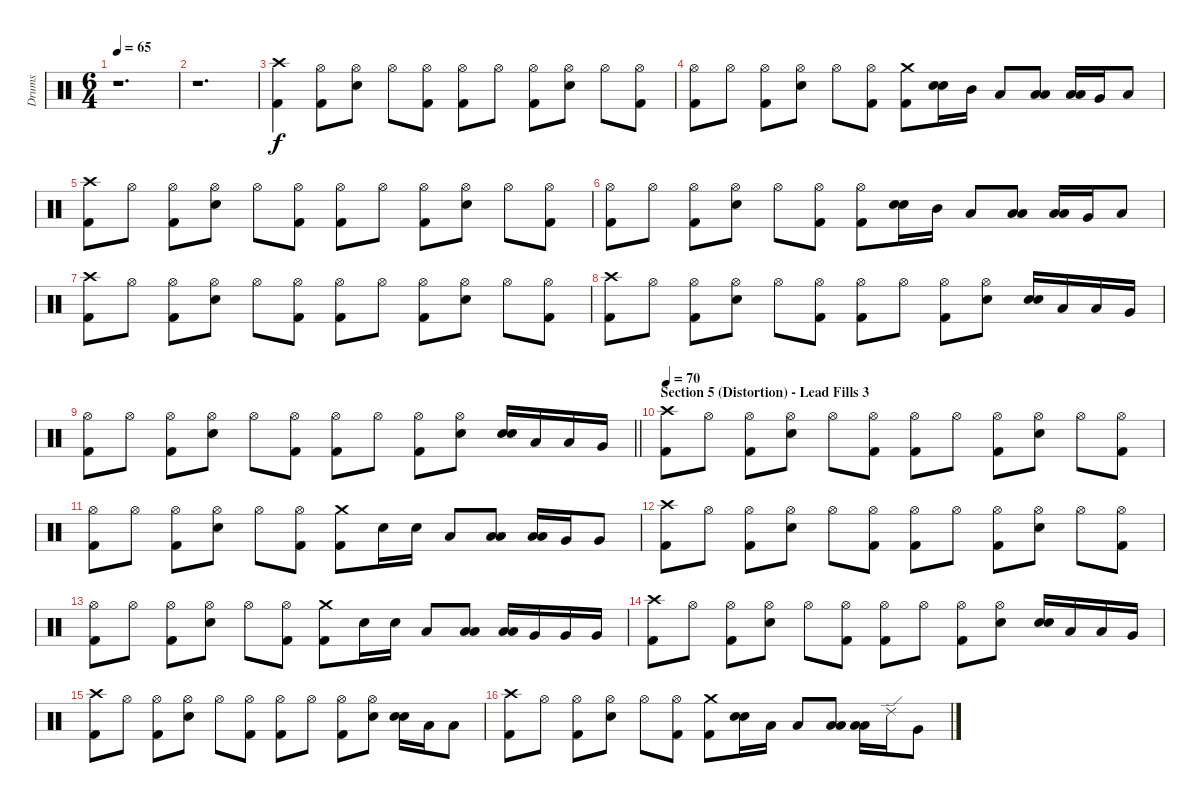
\track ("Drums" "Drums") {instrument percussion}
\staff {score}
\articulation defaults
\ts (6 4)
\tempo 65
\clef neutral
\ks c
r.1{d dy f} |
r.1{d} |
("Crash high (hit)" "Kick (hit) 2").4 ("Hi-Hat (open)" "Kick (hit) 2").8 ("Hi-Hat (open)" "Electric Snare (hit)").8 "Hi-Hat (open)".8 ("Hi-Hat (open)" "Kick (hit) 2").8 ("Hi-Hat (open)" "Kick (hit) 2").8 "Hi-Hat (open)".8 ("Hi-Hat (open)" "Kick (hit) 2").8 ("Hi-Hat (open)" "Electric Snare (hit)").8 "Hi-Hat (open)".8 ("Hi-Hat (open)" "Kick (hit) 2").8 |
("Hi-Hat (open)" "Kick (hit) 2").8 "Hi-Hat (open)".8 ("Hi-Hat (open)" "Kick (hit) 2").8 ("Hi-Hat (open)" "Electric Snare (hit)").8 "Hi-Hat (open)".8 ("Hi-Hat (open)" "Kick (hit) 2").8 ("Crash medium (hit)" "Kick (hit) 2").8 ("Electric Snare (hit)" "Electric Snare (hit)").16{bu 120} "Mid Tom (hit)".16 "Low Tom (hit)".8 ("Low Tom (hit)" "Low Tom (hit)").8{bu 120} ("Low Tom (hit)" "Low Tom (hit)").16{bu 120} "Very Low Tom (hit)".16 "Low Floor Tom (hit)".8 |
("Crash high (hit)" "Kick (hit) 2").8 "Hi-Hat (open)".8 ("Hi-Hat (open)" "Kick (hit) 2").8 ("Hi-Hat (open)" "Electric Snare (hit)").8 "Hi-Hat (open)".8 ("Hi-Hat (open)" "Kick (hit) 2").8 ("Hi-Hat (open)" "Kick (hit) 2").8 "Hi-Hat (open)".8 ("Hi-Hat (open)" "Kick (hit) 2").8 ("Hi-Hat (open)" "Electric Snare (hit)").8 "Hi-Hat (open)".8 ("Hi-Hat (open)" "Kick (hit) 2").8 |
("Hi-Hat (open)" "Kick (hit) 2").8 "Hi-Hat (open)".8 ("Hi-Hat (open)" "Kick (hit) 2").8 ("Hi-Hat (open)" "Electric Snare (hit)").8 "Hi-Hat (open)".8 ("Hi-Hat (open)" "Kick (hit) 2").8 ("Hi-Hat (open)" "Kick (hit) 2").8 ("Electric Snare (hit)" "Electric Snare (hit)").16{bu 120} "Mid Tom (hit)".16 "Low Tom (hit)".8 ("Low Tom (hit)" "Low Tom (hit)").8{bu 120} ("Low Tom (hit)" "Low Tom (hit)").16{bu 120} "Very Low Tom (hit)".16 "Low Floor Tom (hit)".8 |
("Crash high (hit)" "Kick (hit) 2").8 "Hi-Hat (open)".8 ("Hi-Hat (open)" "Kick (hit) 2").8 ("Hi-Hat (open)" "Electric Snare (hit)").8 "Hi-Hat (open)".8 ("Hi-Hat (open)" "Kick (hit) 2").8 ("Hi-Hat (open)" "Kick (hit) 2").8 "Hi-Hat (open)".8 ("Hi-Hat (open)" "Kick (hit) 2").8 ("Hi-Hat (open)" "Electric Snare (hit)").8 "Hi-Hat (open)".8 ("Hi-Hat (open)" "Kick (hit) 2").8 |
("Crash high (hit)" "Kick (hit) 2").8 "Hi-Hat (open)".8 ("Hi-Hat (open)" "Kick (hit) 2").8 ("Hi-Hat (open)" "Electric Snare (hit)").8 "Hi-Hat (open)".8 ("Hi-Hat (open)" "Kick (hit) 2").8 ("Hi-Hat (open)" "Kick (hit) 2").8 "Hi-Hat (open)".8 ("Hi-Hat (open)" "Kick (hit) 2").8 ("Hi-Hat (open)" "Electric Snare (hit)").8 ("Electric Snare (hit)" "Electric Snare (hit)").16{bu 60} "Low Tom (hit)".16 "Low Tom (hit)".16 "Very Low Tom (hit)".16 |
\barLineRight lightlight
("Hi-Hat (open)" "Kick (hit) 2").8 "Hi-Hat (open)".8 ("Hi-Hat (open)" "Kick (hit) 2").8 ("Hi-Hat (open)" "Electric Snare (hit)").8 "Hi-Hat (open)".8 ("Hi-Hat (open)" "Kick (hit) 2").8 ("Hi-Hat (open)" "Kick (hit) 2").8 "Hi-Hat (open)".8 ("Hi-Hat (open)" "Kick (hit) 2").8 ("Hi-Hat (open)" "Electric Snare (hit)").8 ("Electric Snare (hit)" "Electric Snare (hit)").16{bu 60} "Low Tom (hit)".16 "Low Tom (hit)".16 "Very Low Tom (hit)".16 |
\section ("" "Section 5 (Distortion) - Lead Fills 3")
\tempo 70
("Crash high (hit)" "Kick (hit) 2").8 "Hi-Hat (open)".8 ("Hi-Hat (open)" "Kick (hit) 2").8 ("Hi-Hat (open)" "Electric Snare (hit)").8 "Hi-Hat (open)".8 ("Hi-Hat (open)" "Kick (hit) 2").8 ("Hi-Hat (open)" "Kick (hit) 2").8 "Hi-Hat (open)".8 ("Hi-Hat (open)" "Kick (hit) 2").8 ("Hi-Hat (open)" "Electric Snare (hit)").8 "Hi-Hat (open)".8 ("Hi-Hat (open)" "Kick (hit) 2").8 |
("Hi-Hat (open)" "Kick (hit) 2").8 "Hi-Hat (open)".8 ("Hi-Hat (open)" "Kick (hit) 2").8 ("Hi-Hat (open)" "Electric Snare (hit)").8 "Hi-Hat (open)".8 ("Hi-Hat (open)" "Kick (hit) 2").8 ("Crash medium (hit)" "Kick (hit) 2").8 "Electric Snare (hit)".16 "Electric Snare (hit)".16 "Low Tom (hit)".8 ("Low Tom (hit)" "Low Tom (hit)").8{bu 60} ("Low Tom (hit)" "Low Tom (hit)").16{bu 60} "Very Low Tom (hit)".16 "Very Low Tom (hit)".8 |
("Crash high (hit)" "Kick (hit) 2").8 "Hi-Hat (open)".8 ("Hi-Hat (open)" "Kick (hit) 2").8 ("Hi-Hat (open)" "Electric Snare (hit)").8 "Hi-Hat (open)".8 ("Hi-Hat (open)" "Kick (hit) 2").8 ("Hi-Hat (open)" "Kick (hit) 2").8 "Hi-Hat (open)".8 ("Hi-Hat (open)" "Kick (hit) 2").8 ("Hi-Hat (open)" "Electric Snare (hit)").8 "Hi-Hat (open)".8 ("Hi-Hat (open)" "Kick (hit) 2").8 |
("Hi-Hat (open)" "Kick (hit) 2").8 "Hi-Hat (open)".8 ("Hi-Hat (open)" "Kick (hit) 2").8 ("Hi-Hat (open)" "Electric Snare (hit)").8 "Hi-Hat (open)".8 ("Hi-Hat (open)" "Kick (hit) 2").8 ("Crash medium (hit)" "Kick (hit) 2").8 "Electric Snare (hit)".16 "Electric Snare (hit)".16 "Low Tom (hit)".8 ("Low Tom (hit)" "Low Tom (hit)").8{bu 60} ("Low Tom (hit)" "Low Tom (hit)").16{bu 60} "Very Low Tom (hit)".16 "Very Low Tom (hit)".16 "Very Low Tom (hit)".16 |
("Crash high (hit)" "Kick (hit) 2").8 "Hi-Hat (open)".8 ("Hi-Hat (open)" "Kick (hit) 2").8 ("Hi-Hat (open)" "Electric Snare (hit)").8 "Hi-Hat (open)".8 ("Hi-Hat (open)" "Kick (hit) 2").8 ("Hi-Hat (open)" "Kick (hit) 2").8 "Hi-Hat (open)".8 ("Hi-Hat (open)" "Kick (hit) 2").8 ("Hi-Hat (open)" "Electric Snare (hit)").8 ("Electric Snare (hit)" "Electric Snare (hit)").16{bu 60} "Low Tom (hit)".16 "Low Tom (hit)".16 "Very Low Tom (hit)".16 |
("Crash high (hit)" "Kick (hit) 2").8 "Hi-Hat (open)".8 ("Hi-Hat (open)" "Kick (hit) 2").8 ("Hi-Hat (open)" "Electric Snare (hit)").8 "Hi-Hat (open)".8 ("Hi-Hat (open)" "Kick (hit) 2").8 ("Hi-Hat (open)" "Kick (hit) 2").8 "Hi-Hat (open)".8 ("Hi-Hat (open)" "Kick (hit) 2").8 ("Hi-Hat (open)" "Electric Snare (hit)").8 ("Electric Snare (hit)" "Electric Snare (hit)").16{bu 60} "Low Tom (hit)".16 "Low Tom (hit)".8 |
("Crash high (hit)" "Kick (hit) 2").8 "Hi-Hat (open)".8 ("Hi-Hat (open)" "Kick (hit) 2").8 ("Hi-Hat (open)" "Electric Snare (hit)").8 "Hi-Hat (open)".8 ("Hi-Hat (open)" "Kick (hit) 2").8 ("Crash medium (hit)" "Kick (hit) 2").8 ("Electric Snare (hit)" "Electric Snare (hit)").16{bu 60} "Low Tom (hit)".16 "Low Tom (hit)".8 ("Low Tom (hit)" "Low Tom (hit)").8{bu 60} ("Low Tom (hit)" "Low Tom (hit)").16{bu 60} "Ride (edge) 2".16 "Very Low Tom (hit)".8
